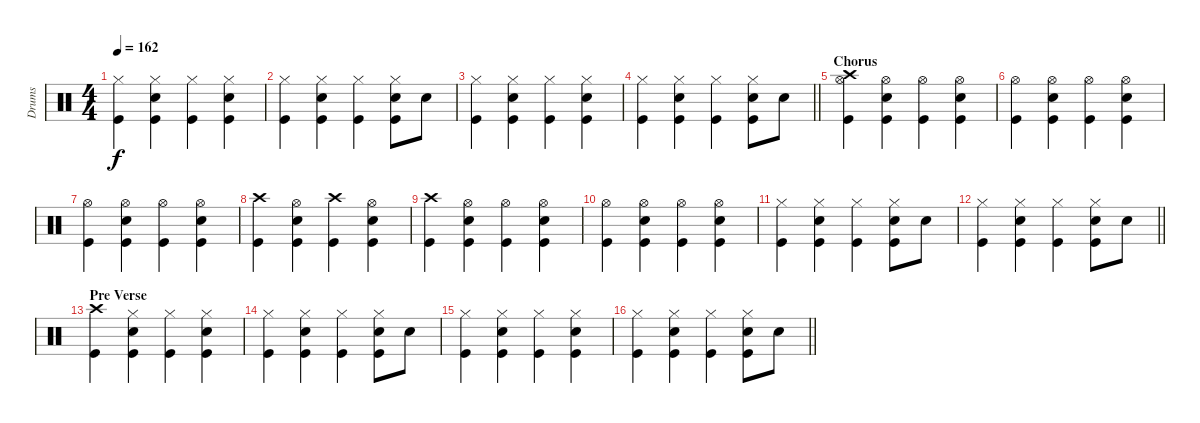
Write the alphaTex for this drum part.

\track ("Drums" "Drums") {instrument percussion}
\staff {score}
\articulation defaults
\ts (4 4)
\tempo 162
\clef neutral
\ks c
("Hi-Hat (closed)" "Kick (hit)").4{dy f} ("Hi-Hat (closed)" "Snare (hit) 2" "Kick (hit)").4 ("Hi-Hat (closed)" "Kick (hit)").4 ("Hi-Hat (closed)" "Snare (hit) 2" "Kick (hit)").4 |
("Hi-Hat (closed)" "Kick (hit)").4 ("Hi-Hat (closed)" "Snare (hit) 2" "Kick (hit)").4 ("Hi-Hat (closed)" "Kick (hit)").4 ("Hi-Hat (closed)" "Snare (hit) 2" "Kick (hit)").8 "Snare (hit) 2".8 |
("Hi-Hat (closed)" "Kick (hit)").4 ("Hi-Hat (closed)" "Snare (hit) 2" "Kick (hit)").4 ("Hi-Hat (closed)" "Kick (hit)").4 ("Hi-Hat (closed)" "Snare (hit) 2" "Kick (hit)").4 |
\barLineRight lightlight
("Hi-Hat (closed)" "Kick (hit)").4 ("Hi-Hat (closed)" "Snare (hit) 2" "Kick (hit)").4 ("Hi-Hat (closed)" "Kick (hit)").4 ("Hi-Hat (closed)" "Snare (hit) 2" "Kick (hit)").8 "Snare (hit) 2".8 |
\section ("" "Chorus")
("Crash high (hit)" "Hi-Hat (open)" "Kick (hit)").4 ("Hi-Hat (open)" "Snare (hit) 2" "Kick (hit)").4 ("Hi-Hat (open)" "Kick (hit)").4 ("Hi-Hat (open)" "Snare (hit) 2" "Kick (hit)").4 |
("Hi-Hat (open)" "Kick (hit)").4 ("Hi-Hat (open)" "Snare (hit) 2" "Kick (hit)").4 ("Hi-Hat (open)" "Kick (hit)").4 ("Hi-Hat (open)" "Snare (hit) 2" "Kick (hit)").4 |
("Hi-Hat (open)" "Kick (hit)").4 ("Hi-Hat (open)" "Snare (hit) 2" "Kick (hit)").4 ("Hi-Hat (open)" "Kick (hit)").4 ("Hi-Hat (open)" "Snare (hit) 2" "Kick (hit)").4 |
("Crash high (hit)" "Kick (hit)").4 ("Hi-Hat (open)" "Snare (hit) 2" "Kick (hit)").4 ("Crash high (hit)" "Kick (hit)").4 ("Hi-Hat (open)" "Snare (hit) 2" "Kick (hit)").4 |
("Crash high (hit)" "Kick (hit)").4 ("Hi-Hat (open)" "Snare (hit) 2" "Kick (hit)").4 ("Hi-Hat (open)" "Kick (hit)").4 ("Hi-Hat (open)" "Snare (hit) 2" "Kick (hit)").4 |
("Hi-Hat (open)" "Kick (hit)").4 ("Hi-Hat (open)" "Snare (hit) 2" "Kick (hit)").4 ("Hi-Hat (open)" "Kick (hit)").4 ("Hi-Hat (open)" "Snare (hit) 2" "Kick (hit)").4 |
("Hi-Hat (closed)" "Kick (hit)").4 ("Hi-Hat (closed)" "Snare (hit) 2" "Kick (hit)").4 ("Hi-Hat (closed)" "Kick (hit)").4 ("Hi-Hat (closed)" "Snare (hit) 2" "Kick (hit)").8 "Snare (hit) 2".8 |
\barLineRight lightlight
("Hi-Hat (closed)" "Kick (hit)").4 ("Hi-Hat (closed)" "Snare (hit) 2" "Kick (hit)").4 ("Hi-Hat (closed)" "Kick (hit)").4 ("Hi-Hat (closed)" "Snare (hit) 2" "Kick (hit)").8 "Snare (hit) 2".8 |
\section ("" "Pre Verse")
("Crash high (hit)" "Kick (hit)").4 ("Hi-Hat (closed)" "Snare (hit) 2" "Kick (hit)").4 ("Hi-Hat (closed)" "Kick (hit)").4 ("Hi-Hat (closed)" "Snare (hit) 2" "Kick (hit)").4 |
("Hi-Hat (closed)" "Kick (hit)").4 ("Hi-Hat (closed)" "Snare (hit) 2" "Kick (hit)").4 ("Hi-Hat (closed)" "Kick (hit)").4 ("Hi-Hat (closed)" "Snare (hit) 2" "Kick (hit)").8 "Snare (hit) 2".8 |
("Hi-Hat (closed)" "Kick (hit)").4 ("Hi-Hat (closed)" "Snare (hit) 2" "Kick (hit)").4 ("Hi-Hat (closed)" "Kick (hit)").4 ("Hi-Hat (closed)" "Snare (hit) 2" "Kick (hit)").4 |
\barLineRight lightlight
("Hi-Hat (closed)" "Kick (hit)").4 ("Hi-Hat (closed)" "Snare (hit) 2" "Kick (hit)").4 ("Hi-Hat (closed)" "Kick (hit)").4 ("Hi-Hat (closed)" "Snare (hit) 2" "Kick (hit)").8 "Snare (hit) 2".8
